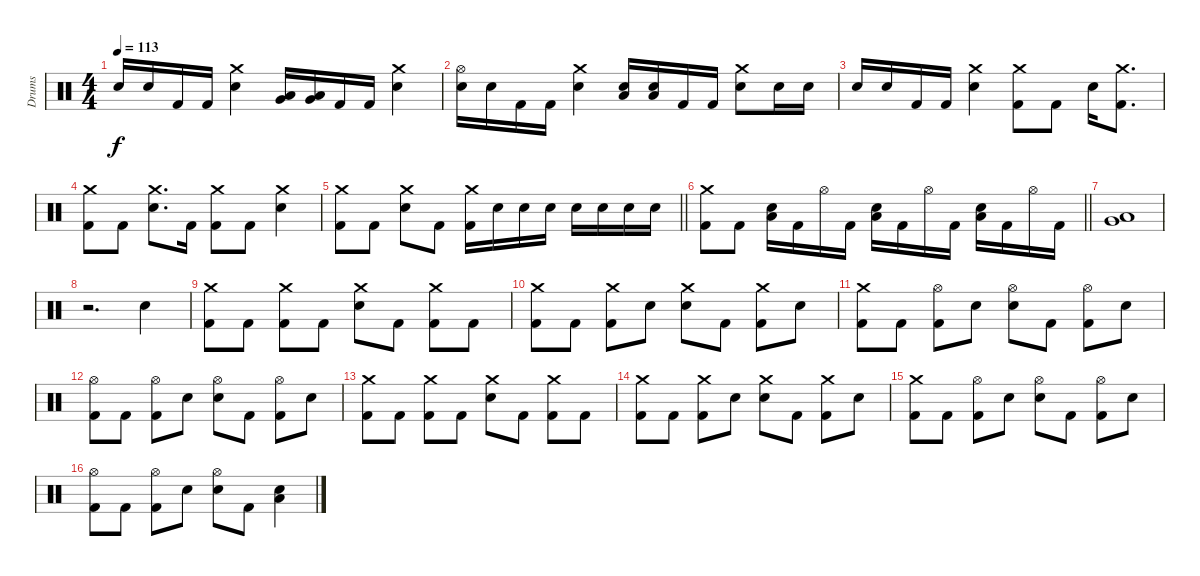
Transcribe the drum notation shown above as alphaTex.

\track ("Drums" "Drums") {instrument percussion}
\staff {score}
\articulation defaults
\ts (4 4)
\tempo 113
\clef neutral
\ks c "Electric Snare (hit)".16{dy f} "Electric Snare (hit)".16 "Kick (hit) 2".16 "Kick (hit) 2".16
("Crash medium (hit)" "Electric Snare (hit)").4 ("Low Floor Tom (hit)" "Very Low Tom (hit)").16 ("Low Floor Tom (hit)" "Very Low Tom (hit)").16 "Kick (hit) 2".16 "Kick (hit) 2".16 ("Crash medium (hit)" "Electric Snare (hit)").4 |
("Hi-Hat (open)" "Electric Snare (hit)").16 "Electric Snare (hit)".16 "Kick (hit) 2".16 "Kick (hit) 2".16 ("Crash medium (hit)" "Electric Snare (hit)").4 ("Low Floor Tom (hit)" "Electric Snare (hit)").16 ("Low Floor Tom (hit)" "Electric Snare (hit)").16 "Kick (hit) 2".16 "Kick (hit) 2".16 ("Crash medium (hit)" "Electric Snare (hit)").8 "Electric Snare (hit)".16 "Electric Snare (hit)".16 |
"Electric Snare (hit)".16 "Electric Snare (hit)".16 "Kick (hit) 2".16 "Kick (hit) 2".16 ("Crash medium (hit)" "Electric Snare (hit)").4 ("Crash medium (hit)" "Kick (hit) 2").8 "Kick (hit) 2".8 "Electric Snare (hit)".16 ("Crash medium (hit)" "Kick (hit) 2").8{d} |
("Crash medium (hit)" "Kick (hit) 2").8 "Kick (hit) 2".8 ("Crash medium (hit)" "Electric Snare (hit)").8{d} "Kick (hit) 2".16 ("Crash medium (hit)" "Kick (hit) 2").8 "Kick (hit) 2".8 ("Crash medium (hit)" "Electric Snare (hit)").4 |
\barLineRight lightlight
("Crash medium (hit)" "Kick (hit) 2").8 "Kick (hit) 2".8 ("Crash medium (hit)" "Electric Snare (hit)").8 "Kick (hit) 2".8 ("Crash medium (hit)" "Kick (hit) 2").16 "Electric Snare (hit)".16 "Electric Snare (hit)".16 "Electric Snare (hit)".16 "Electric Snare (hit)".16 "Electric Snare (hit)".16 "Electric Snare (hit)".16 "Electric Snare (hit)".16 |
\barLineRight lightlight
("Crash medium (hit)" "Kick (hit) 2").8 "Kick (hit) 2".8 ("Low Floor Tom (hit)" "Electric Snare (hit)").16 "Kick (hit) 2".16 "Hi-Hat (open)".16 "Kick (hit) 2".16 ("Low Floor Tom (hit)" "Electric Snare (hit)").16 "Kick (hit) 2".16 "Hi-Hat (open)".16 "Kick (hit) 2".16 ("Low Floor Tom (hit)" "Electric Snare (hit)").16 "Kick (hit) 2".16 "Hi-Hat (open)".16 "Kick (hit) 2".16 |
\section ("" "")
("Low Floor Tom (hit)" "Very Low Tom (hit)").1 |
r.2{d} "Electric Snare (hit)".4 |
("Crash medium (hit)" "Kick (hit) 2").8 "Kick (hit) 2".8 ("Crash medium (hit)" "Kick (hit) 2").8 "Kick (hit) 2".8 ("Crash medium (hit)" "Electric Snare (hit)").8 "Kick (hit) 2".8 ("Crash medium (hit)" "Kick (hit) 2").8 "Kick (hit) 2".8 |
("Crash medium (hit)" "Kick (hit) 2").8 "Kick (hit) 2".8 ("Crash medium (hit)" "Kick (hit) 2").8 "Electric Snare (hit)".8 ("Crash medium (hit)" "Electric Snare (hit)").8 "Kick (hit) 2".8 ("Crash medium (hit)" "Kick (hit) 2").8 "Electric Snare (hit)".8 |
("Crash medium (hit)" "Kick (hit) 2").8 "Kick (hit) 2".8 ("Hi-Hat (open)" "Kick (hit) 2").8 "Electric Snare (hit)".8 ("Hi-Hat (open)" "Electric Snare (hit)").8 "Kick (hit) 2".8 ("Hi-Hat (open)" "Kick (hit) 2").8 "Electric Snare (hit)".8 |
("Hi-Hat (open)" "Kick (hit) 2").8 "Kick (hit) 2".8 ("Hi-Hat (open)" "Kick (hit) 2").8 "Electric Snare (hit)".8 ("Hi-Hat (open)" "Electric Snare (hit)").8 "Kick (hit) 2".8 ("Hi-Hat (open)" "Kick (hit) 2").8 "Electric Snare (hit)".8 |
("Crash medium (hit)" "Kick (hit) 2").8 "Kick (hit) 2".8 ("Crash medium (hit)" "Kick (hit) 2").8 "Kick (hit) 2".8 ("Crash medium (hit)" "Electric Snare (hit)").8 "Kick (hit) 2".8 ("Crash medium (hit)" "Kick (hit) 2").8 "Kick (hit) 2".8 |
("Crash medium (hit)" "Kick (hit) 2").8 "Kick (hit) 2".8 ("Crash medium (hit)" "Kick (hit) 2").8 "Electric Snare (hit)".8 ("Crash medium (hit)" "Electric Snare (hit)").8 "Kick (hit) 2".8 ("Crash medium (hit)" "Kick (hit) 2").8 "Electric Snare (hit)".8 |
("Crash medium (hit)" "Kick (hit) 2").8 "Kick (hit) 2".8 ("Hi-Hat (open)" "Kick (hit) 2").8 "Electric Snare (hit)".8 ("Hi-Hat (open)" "Electric Snare (hit)").8 "Kick (hit) 2".8 ("Hi-Hat (open)" "Kick (hit) 2").8 "Electric Snare (hit)".8 |
("Hi-Hat (open)" "Kick (hit) 2").8 "Kick (hit) 2".8 ("Hi-Hat (open)" "Kick (hit) 2").8 "Electric Snare (hit)".8 ("Hi-Hat (open)" "Electric Snare (hit)").8 "Kick (hit) 2".8 ("Low Floor Tom (hit)" "Electric Snare (hit)").4
